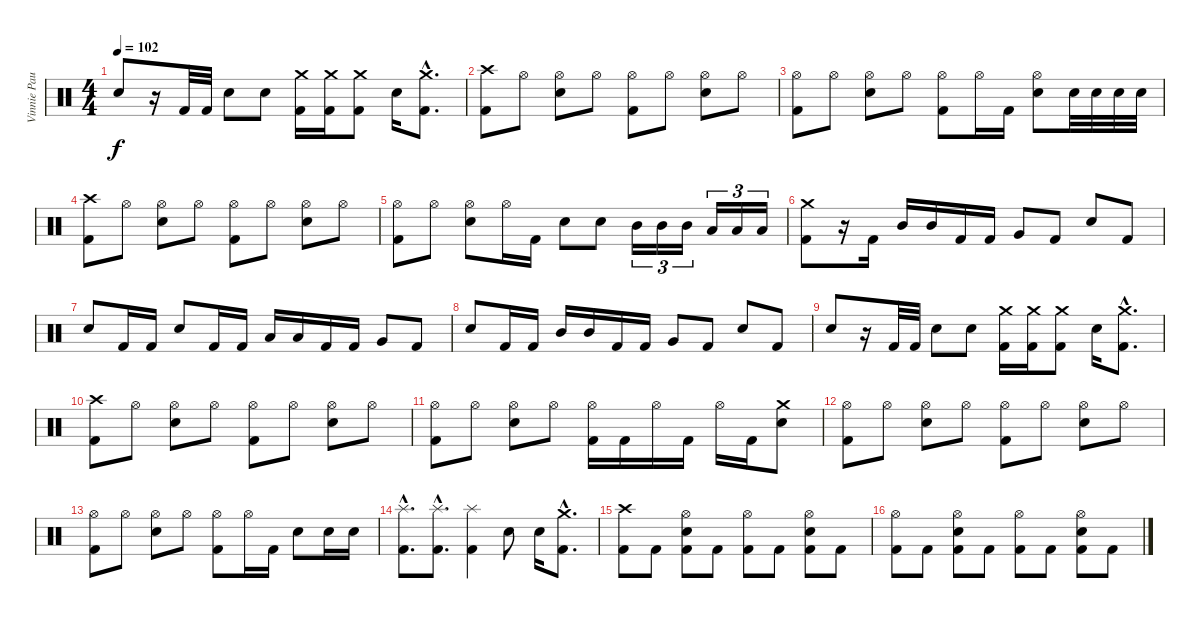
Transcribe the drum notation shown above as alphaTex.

\track ("Vinnie Paul" "Vinnie Pau") {instrument percussion}
\staff {score}
\articulation defaults
\ts (4 4)
\tempo 102
\clef neutral
\ks c "Snare (hit) 2".8{dy f}
r.16 "Kick (hit) 2".32 "Kick (hit) 2".32 "Snare (hit) 2".8 "Snare (hit) 2".8 ("Crash medium (hit)" "Kick (hit) 2").16 ("Crash medium (hit)" "Kick (hit) 2").16 ("Crash medium (hit)" "Kick (hit) 2").8 "Snare (hit) 2".16 ("Crash medium (hit)"{hac} "Kick (hit) 2"{hac}).8{d} |
("Crash high (hit)" "Kick (hit) 2").8 "Hi-Hat (open)".8 ("Hi-Hat (open)" "Snare (hit) 2").8 "Hi-Hat (open)".8 ("Hi-Hat (open)" "Kick (hit) 2").8 "Hi-Hat (open)".8 ("Hi-Hat (open)" "Snare (hit) 2").8 "Hi-Hat (open)".8 |
("Hi-Hat (open)" "Kick (hit) 2").8 "Hi-Hat (open)".8 ("Hi-Hat (open)" "Snare (hit) 2").8 "Hi-Hat (open)".8 ("Hi-Hat (open)" "Kick (hit) 2").8 "Hi-Hat (open)".16 "Kick (hit) 2".16 ("Hi-Hat (open)" "Snare (hit) 2").8 "Snare (hit) 2".32 "Snare (hit) 2".32 "Snare (hit) 2".32 "Snare (hit) 2".32 |
("Crash high (hit)" "Kick (hit) 2").8 "Hi-Hat (open)".8 ("Hi-Hat (open)" "Snare (hit) 2").8 "Hi-Hat (open)".8 ("Hi-Hat (open)" "Kick (hit) 2").8 "Hi-Hat (open)".8 ("Hi-Hat (open)" "Snare (hit) 2").8 "Hi-Hat (open)".8 |
("Hi-Hat (open)" "Kick (hit) 2").8 "Hi-Hat (open)".8 ("Hi-Hat (open)" "Snare (hit) 2").8 "Hi-Hat (open)".16 "Kick (hit) 2".16 "Snare (hit) 2".8 "Snare (hit) 2".8 "Mid Tom (hit)".16{tu (3 2)} "Mid Tom (hit)".16{tu (3 2)} "Mid Tom (hit)".16{tu (3 2)} "Low Tom (hit)".16{tu (3 2)} "Low Tom (hit)".16{tu (3 2)} "Low Tom (hit)".16{tu (3 2)} |
("Crash medium (hit)" "Kick (hit) 2").8 r.16 "Kick (hit) 2".16 "Mid Tom (hit)".16 "Mid Tom (hit)".16 "Kick (hit) 2".16 "Kick (hit) 2".16 "Very Low Tom (hit)".8 "Kick (hit) 2".8 "Snare (hit) 2".8 "Kick (hit) 2".8 |
"Snare (hit) 2".8 "Kick (hit) 2".16 "Kick (hit) 2".16 "Snare (hit) 2".8 "Kick (hit) 2".16 "Kick (hit) 2".16 "Low Tom (hit)".16 "Low Tom (hit)".16 "Kick (hit) 2".16 "Kick (hit) 2".16 "Very Low Tom (hit)".8 "Kick (hit) 2".8 |
"Snare (hit) 2".8 "Kick (hit) 2".16 "Kick (hit) 2".16 "Mid Tom (hit)".16 "Mid Tom (hit)".16 "Kick (hit) 2".16 "Kick (hit) 2".16 "Very Low Tom (hit)".8 "Kick (hit) 2".8 "Snare (hit) 2".8 "Kick (hit) 2".8 |
"Snare (hit) 2".8 r.16 "Kick (hit) 2".32 "Kick (hit) 2".32 "Snare (hit) 2".8 "Snare (hit) 2".8 ("Crash medium (hit)" "Kick (hit) 2").16 ("Crash medium (hit)" "Kick (hit) 2").16 ("Crash medium (hit)" "Kick (hit) 2").8 "Snare (hit) 2".16 ("Crash medium (hit)"{hac} "Kick (hit) 2"{hac}).8{d} |
("Crash high (hit)" "Kick (hit) 2").8 "Hi-Hat (open)".8 ("Hi-Hat (open)" "Snare (hit) 2").8 "Hi-Hat (open)".8 ("Hi-Hat (open)" "Kick (hit) 2").8 "Hi-Hat (open)".8 ("Hi-Hat (open)" "Snare (hit) 2").8 "Hi-Hat (open)".8 |
("Hi-Hat (open)" "Kick (hit) 2").8 "Hi-Hat (open)".8 ("Hi-Hat (open)" "Snare (hit) 2").8 "Hi-Hat (open)".8 ("Hi-Hat (open)" "Kick (hit) 2").16 "Kick (hit) 2".16 "Hi-Hat (open)".16 "Kick (hit) 2".16 "Hi-Hat (open)".16 "Kick (hit) 2".16 ("Crash medium (hit)" "Snare (hit) 2").8 |
("Hi-Hat (open)" "Kick (hit) 2").8 "Hi-Hat (open)".8 ("Hi-Hat (open)" "Snare (hit) 2").8 "Hi-Hat (open)".8 ("Hi-Hat (open)" "Kick (hit) 2").8 "Hi-Hat (open)".8 ("Hi-Hat (open)" "Snare (hit) 2").8 "Hi-Hat (open)".8 |
("Hi-Hat (open)" "Kick (hit) 2").8 "Hi-Hat (open)".8 ("Hi-Hat (open)" "Snare (hit) 2").8 "Hi-Hat (open)".8 ("Hi-Hat (open)" "Kick (hit) 2").8 "Hi-Hat (open)".16 "Kick (hit) 2".16 "Snare (hit) 2".8 "Snare (hit) 2".16 "Snare (hit) 2".16 |
("Splash (hit)"{hac} "Kick (hit) 2"{hac}).8{d} ("Splash (hit)"{hac} "Kick (hit) 2"{hac}).8{d} ("Splash (hit)" "Kick (hit) 2").4 "Snare (hit) 2".8 "Snare (hit) 2".16 ("Crash medium (hit)"{hac} "Kick (hit) 2"{hac}).8{d} |
("Crash high (hit)" "Kick (hit) 2").8 "Kick (hit) 2".8 ("Hi-Hat (open)" "Snare (hit) 2" "Kick (hit) 2").8 "Kick (hit) 2".8 ("Hi-Hat (open)" "Kick (hit) 2").8 "Kick (hit) 2".8 ("Hi-Hat (open)" "Snare (hit) 2" "Kick (hit) 2").8 "Kick (hit) 2".8 |
("Hi-Hat (open)" "Kick (hit) 2").8 "Kick (hit) 2".8 ("Hi-Hat (open)" "Snare (hit) 2" "Kick (hit) 2").8 "Kick (hit) 2".8 ("Hi-Hat (open)" "Kick (hit) 2").8 "Kick (hit) 2".8 ("Hi-Hat (open)" "Snare (hit) 2" "Kick (hit) 2").8 "Kick (hit) 2".8
